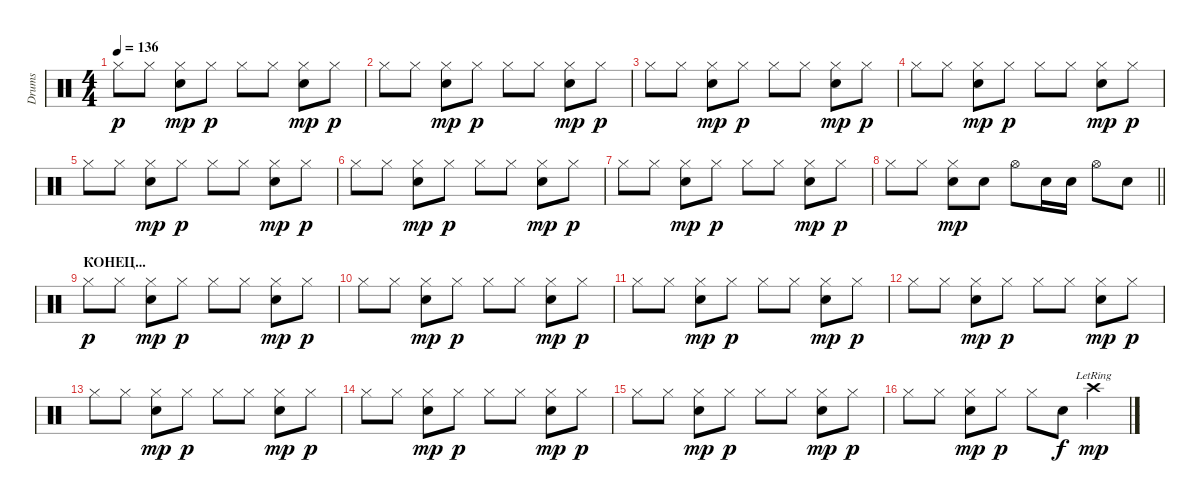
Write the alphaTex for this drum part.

\track ("Drums" "Drums") {instrument percussion}
\staff {score}
\articulation defaults
\ts (4 4)
\tempo 136
\clef neutral
\ks c "Hi-Hat (closed)".8{dy p} "Hi-Hat (closed)".8
("Hi-Hat (closed)" "Electric Snare (hit)").8{dy mp} "Hi-Hat (closed)".8{dy p} "Hi-Hat (closed)".8 "Hi-Hat (closed)".8 ("Hi-Hat (closed)" "Electric Snare (hit)").8{dy mp} "Hi-Hat (closed)".8{dy p} |
"Hi-Hat (closed)".8 "Hi-Hat (closed)".8 ("Hi-Hat (closed)" "Electric Snare (hit)").8{dy mp} "Hi-Hat (closed)".8{dy p} "Hi-Hat (closed)".8 "Hi-Hat (closed)".8 ("Hi-Hat (closed)" "Electric Snare (hit)").8{dy mp} "Hi-Hat (closed)".8{dy p} |
"Hi-Hat (closed)".8 "Hi-Hat (closed)".8 ("Hi-Hat (closed)" "Electric Snare (hit)").8{dy mp} "Hi-Hat (closed)".8{dy p} "Hi-Hat (closed)".8 "Hi-Hat (closed)".8 ("Hi-Hat (closed)" "Electric Snare (hit)").8{dy mp} "Hi-Hat (closed)".8{dy p} |
"Hi-Hat (closed)".8 "Hi-Hat (closed)".8 ("Hi-Hat (closed)" "Electric Snare (hit)").8{dy mp} "Hi-Hat (closed)".8{dy p} "Hi-Hat (closed)".8 "Hi-Hat (closed)".8 ("Hi-Hat (closed)" "Electric Snare (hit)").8{dy mp} "Hi-Hat (closed)".8{dy p} |
"Hi-Hat (closed)".8 "Hi-Hat (closed)".8 ("Hi-Hat (closed)" "Electric Snare (hit)").8{dy mp} "Hi-Hat (closed)".8{dy p} "Hi-Hat (closed)".8 "Hi-Hat (closed)".8 ("Hi-Hat (closed)" "Electric Snare (hit)").8{dy mp} "Hi-Hat (closed)".8{dy p} |
"Hi-Hat (closed)".8 "Hi-Hat (closed)".8 ("Hi-Hat (closed)" "Electric Snare (hit)").8{dy mp} "Hi-Hat (closed)".8{dy p} "Hi-Hat (closed)".8 "Hi-Hat (closed)".8 ("Hi-Hat (closed)" "Electric Snare (hit)").8{dy mp} "Hi-Hat (closed)".8{dy p} |
"Hi-Hat (closed)".8 "Hi-Hat (closed)".8 ("Hi-Hat (closed)" "Electric Snare (hit)").8{dy mp} "Hi-Hat (closed)".8{dy p} "Hi-Hat (closed)".8 "Hi-Hat (closed)".8 ("Hi-Hat (closed)" "Electric Snare (hit)").8{dy mp} "Hi-Hat (closed)".8{dy p} |
\barLineRight lightlight "Hi-Hat (closed)".8 "Hi-Hat (closed)".8
("Hi-Hat (closed)" "Electric Snare (hit)").8{dy mp} "Electric Snare (hit)".8 "Hi-Hat (open)".8 "Electric Snare (hit)".16 "Electric Snare (hit)".16 "Hi-Hat (open)".8 "Electric Snare (hit)".8 |
\section ("" "КОНЕЦ...")
"Hi-Hat (closed)".8{dy p} "Hi-Hat (closed)".8 ("Hi-Hat (closed)" "Electric Snare (hit)").8{dy mp} "Hi-Hat (closed)".8{dy p} "Hi-Hat (closed)".8 "Hi-Hat (closed)".8 ("Hi-Hat (closed)" "Electric Snare (hit)").8{dy mp} "Hi-Hat (closed)".8{dy p} |
"Hi-Hat (closed)".8 "Hi-Hat (closed)".8 ("Hi-Hat (closed)" "Electric Snare (hit)").8{dy mp} "Hi-Hat (closed)".8{dy p} "Hi-Hat (closed)".8 "Hi-Hat (closed)".8 ("Hi-Hat (closed)" "Electric Snare (hit)").8{dy mp} "Hi-Hat (closed)".8{dy p} |
"Hi-Hat (closed)".8 "Hi-Hat (closed)".8 ("Hi-Hat (closed)" "Electric Snare (hit)").8{dy mp} "Hi-Hat (closed)".8{dy p} "Hi-Hat (closed)".8 "Hi-Hat (closed)".8 ("Hi-Hat (closed)" "Electric Snare (hit)").8{dy mp} "Hi-Hat (closed)".8{dy p} |
"Hi-Hat (closed)".8 "Hi-Hat (closed)".8 ("Hi-Hat (closed)" "Electric Snare (hit)").8{dy mp} "Hi-Hat (closed)".8{dy p} "Hi-Hat (closed)".8 "Hi-Hat (closed)".8 ("Hi-Hat (closed)" "Electric Snare (hit)").8{dy mp} "Hi-Hat (closed)".8{dy p} |
"Hi-Hat (closed)".8 "Hi-Hat (closed)".8 ("Hi-Hat (closed)" "Electric Snare (hit)").8{dy mp} "Hi-Hat (closed)".8{dy p} "Hi-Hat (closed)".8 "Hi-Hat (closed)".8 ("Hi-Hat (closed)" "Electric Snare (hit)").8{dy mp} "Hi-Hat (closed)".8{dy p} |
"Hi-Hat (closed)".8 "Hi-Hat (closed)".8 ("Hi-Hat (closed)" "Electric Snare (hit)").8{dy mp} "Hi-Hat (closed)".8{dy p} "Hi-Hat (closed)".8 "Hi-Hat (closed)".8 ("Hi-Hat (closed)" "Electric Snare (hit)").8{dy mp} "Hi-Hat (closed)".8{dy p} |
"Hi-Hat (closed)".8 "Hi-Hat (closed)".8 ("Hi-Hat (closed)" "Electric Snare (hit)").8{dy mp} "Hi-Hat (closed)".8{dy p} "Hi-Hat (closed)".8 "Hi-Hat (closed)".8 ("Hi-Hat (closed)" "Electric Snare (hit)").8{dy mp} "Hi-Hat (closed)".8{dy p} |
"Hi-Hat (closed)".8 "Hi-Hat (closed)".8 ("Hi-Hat (closed)" "Electric Snare (hit)").8{dy mp} "Hi-Hat (closed)".8{dy p} "Hi-Hat (closed)".8 "Electric Snare (hit)".8{dy f} "Crash high (hit)"{lr}.4{dy mp}
